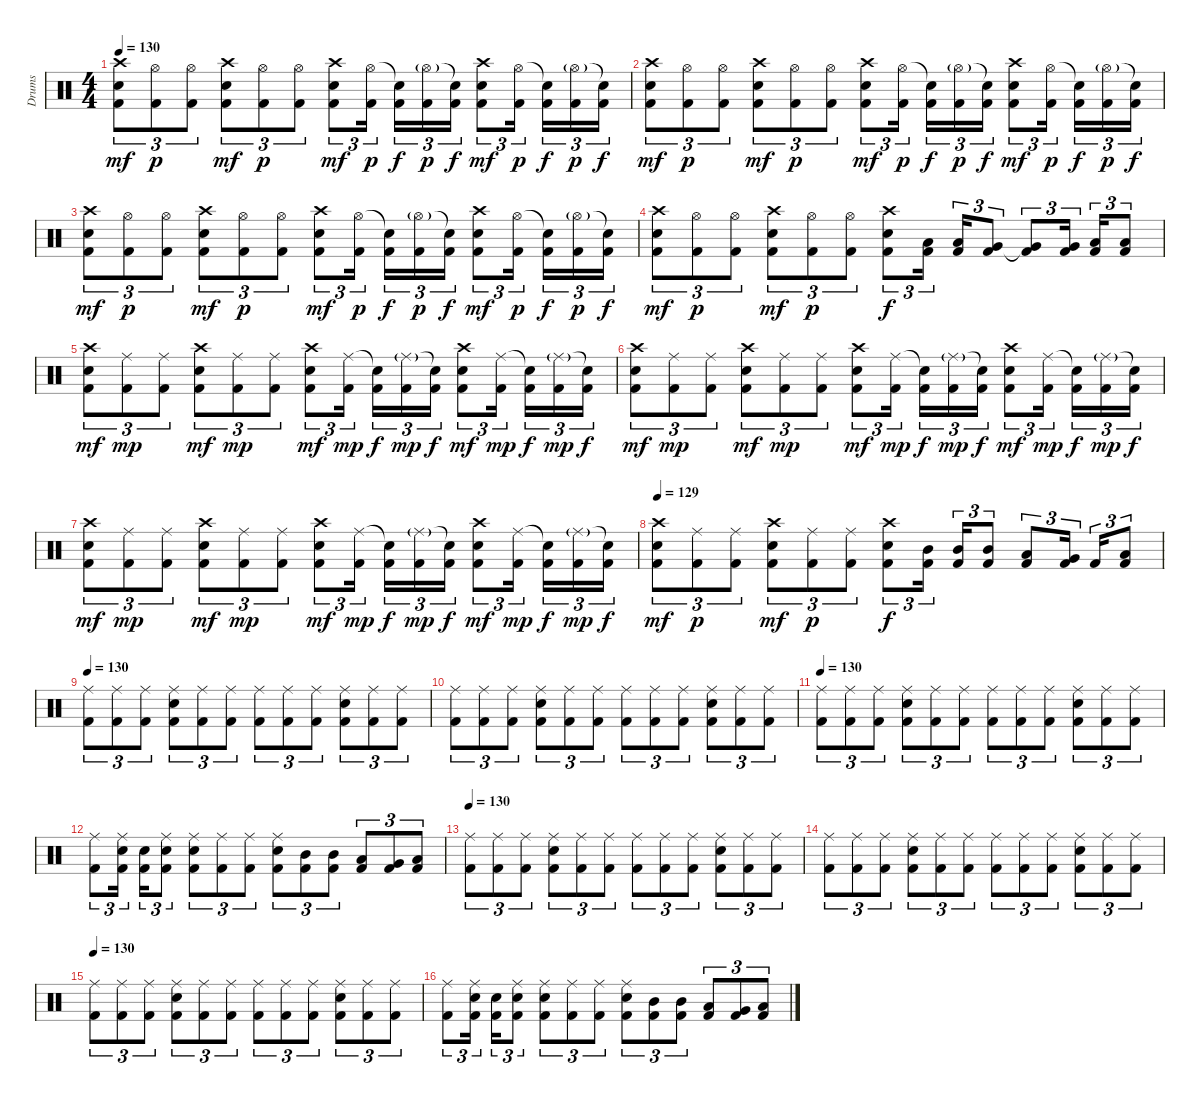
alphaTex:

\track ("Drums" "Drums") {instrument percussion}
\staff {score}
\articulation defaults
\ts (4 4)
\tempo 130
\clef neutral
\ks c
("Crash high (hit)" "Snare (hit) 2" "Kick (hit) 2").8{tu (3 2) dy mf} ("Hi-Hat (open)" "Kick (hit) 2").8{tu (3 2) dy p} ("Hi-Hat (open)" "Kick (hit) 2").8{tu (3 2)} ("Crash high (hit)" "Snare (hit) 2" "Kick (hit) 2").8{tu (3 2) dy mf} ("Hi-Hat (open)" "Kick (hit) 2").8{tu (3 2) dy p} ("Hi-Hat (open)" "Kick (hit) 2").8{tu (3 2)} ("Crash high (hit)" "Snare (hit) 2" "Kick (hit) 2").8{tu (3 2) dy mf} ("Hi-Hat (open)" "Kick (hit) 2").16{tu (3 2) dy p} ("Snare (hit)"{t} "Kick (hit) 2").16{tu (3 2) dy f} ("Hi-Hat (open)"{g} "Kick (hit) 2").16{tu (3 2) dy p} ("Snare (hit)"{t} "Kick (hit) 2").16{tu (3 2) dy f} ("Crash high (hit)" "Snare (hit) 2" "Kick (hit) 2").8{tu (3 2) dy mf} ("Hi-Hat (open)" "Kick (hit) 2").16{tu (3 2) dy p} ("Snare (hit)"{t} "Kick (hit) 2").16{tu (3 2) dy f} ("Hi-Hat (open)"{g} "Kick (hit) 2").16{tu (3 2) dy p} ("Snare (hit)"{t} "Kick (hit) 2").16{tu (3 2) dy f} |
("Crash high (hit)" "Snare (hit) 2" "Kick (hit) 2").8{tu (3 2) dy mf} ("Hi-Hat (open)" "Kick (hit) 2").8{tu (3 2) dy p} ("Hi-Hat (open)" "Kick (hit) 2").8{tu (3 2)} ("Crash high (hit)" "Snare (hit) 2" "Kick (hit) 2").8{tu (3 2) dy mf} ("Hi-Hat (open)" "Kick (hit) 2").8{tu (3 2) dy p} ("Hi-Hat (open)" "Kick (hit) 2").8{tu (3 2)} ("Crash high (hit)" "Snare (hit) 2" "Kick (hit) 2").8{tu (3 2) dy mf} ("Hi-Hat (open)" "Kick (hit) 2").16{tu (3 2) dy p} ("Snare (hit)"{t} "Kick (hit) 2").16{tu (3 2) dy f} ("Hi-Hat (open)"{g} "Kick (hit) 2").16{tu (3 2) dy p} ("Snare (hit)"{t} "Kick (hit) 2").16{tu (3 2) dy f} ("Crash high (hit)" "Snare (hit) 2" "Kick (hit) 2").8{tu (3 2) dy mf} ("Hi-Hat (open)" "Kick (hit) 2").16{tu (3 2) dy p} ("Snare (hit)"{t} "Kick (hit) 2").16{tu (3 2) dy f} ("Hi-Hat (open)"{g} "Kick (hit) 2").16{tu (3 2) dy p} ("Snare (hit)"{t} "Kick (hit) 2").16{tu (3 2) dy f} |
("Crash high (hit)" "Snare (hit) 2" "Kick (hit) 2").8{tu (3 2) dy mf} ("Hi-Hat (open)" "Kick (hit) 2").8{tu (3 2) dy p} ("Hi-Hat (open)" "Kick (hit) 2").8{tu (3 2)} ("Crash high (hit)" "Snare (hit) 2" "Kick (hit) 2").8{tu (3 2) dy mf} ("Hi-Hat (open)" "Kick (hit) 2").8{tu (3 2) dy p} ("Hi-Hat (open)" "Kick (hit) 2").8{tu (3 2)} ("Crash high (hit)" "Snare (hit) 2" "Kick (hit) 2").8{tu (3 2) dy mf} ("Hi-Hat (open)" "Kick (hit) 2").16{tu (3 2) dy p} ("Snare (hit)"{t} "Kick (hit) 2").16{tu (3 2) dy f} ("Hi-Hat (open)"{g} "Kick (hit) 2").16{tu (3 2) dy p} ("Snare (hit)"{t} "Kick (hit) 2").16{tu (3 2) dy f} ("Crash high (hit)" "Snare (hit) 2" "Kick (hit) 2").8{tu (3 2) dy mf} ("Hi-Hat (open)" "Kick (hit) 2").16{tu (3 2) dy p} ("Snare (hit)"{t} "Kick (hit) 2").16{tu (3 2) dy f} ("Hi-Hat (open)"{g} "Kick (hit) 2").16{tu (3 2) dy p} ("Snare (hit)"{t} "Kick (hit) 2").16{tu (3 2) dy f} |
("Crash high (hit)" "Snare (hit) 2" "Kick (hit) 2").8{tu (3 2) dy mf} ("Hi-Hat (open)" "Kick (hit) 2").8{tu (3 2) dy p} ("Hi-Hat (open)" "Kick (hit) 2").8{tu (3 2)} ("Crash high (hit)" "Snare (hit) 2" "Kick (hit) 2").8{tu (3 2) dy mf} ("Hi-Hat (open)" "Kick (hit) 2").8{tu (3 2) dy p} ("Hi-Hat (open)" "Kick (hit) 2").8{tu (3 2)} ("Crash high (hit)" "Snare (hit) 2" "Kick (hit) 2").8{tu (3 2) dy f} ("Low Tom (hit)" "Kick (hit) 2").16{tu (3 2)} ("Low Tom (hit)" "Kick (hit) 2").16{tu (3 2)} ("Very Low Tom (hit)" "Kick (hit) 2").8{tu (3 2)} ("Very Low Tom (hit)"{t} "Kick (hit) 2").8{tu (3 2)} ("Very Low Tom (hit)" "Kick (hit) 2").16{tu (3 2)} ("Low Floor Tom (hit)" "Kick (hit) 2").16{tu (3 2)} ("Low Floor Tom (hit)" "Kick (hit) 2").8{tu (3 2)} |
("Crash high (hit)" "Snare (hit) 2" "Kick (hit) 2").8{tu (3 2) dy mf} ("Ride (middle)" "Kick (hit) 2").8{tu (3 2) dy mp} ("Ride (middle)" "Kick (hit) 2").8{tu (3 2)} ("Crash high (hit)" "Snare (hit) 2" "Kick (hit) 2").8{tu (3 2) dy mf} ("Ride (middle)" "Kick (hit) 2").8{tu (3 2) dy mp} ("Ride (middle)" "Kick (hit) 2").8{tu (3 2)} ("Crash high (hit)" "Snare (hit) 2" "Kick (hit) 2").8{tu (3 2) dy mf} ("Ride (middle)" "Kick (hit) 2").16{tu (3 2) dy mp} ("Snare (hit)"{t} "Kick (hit) 2").16{tu (3 2) dy f} ("Ride (middle)"{g} "Kick (hit) 2").16{tu (3 2) dy mp} ("Snare (hit)"{t} "Kick (hit) 2").16{tu (3 2) dy f} ("Crash high (hit)" "Snare (hit) 2" "Kick (hit) 2").8{tu (3 2) dy mf} ("Ride (middle)" "Kick (hit) 2").16{tu (3 2) dy mp} ("Snare (hit)"{t} "Kick (hit) 2").16{tu (3 2) dy f} ("Ride (middle)"{g} "Kick (hit) 2").16{tu (3 2) dy mp} ("Snare (hit)"{t} "Kick (hit) 2").16{tu (3 2) dy f} |
("Crash high (hit)" "Snare (hit) 2" "Kick (hit) 2").8{tu (3 2) dy mf} ("Ride (middle)" "Kick (hit) 2").8{tu (3 2) dy mp} ("Ride (middle)" "Kick (hit) 2").8{tu (3 2)} ("Crash high (hit)" "Snare (hit) 2" "Kick (hit) 2").8{tu (3 2) dy mf} ("Ride (middle)" "Kick (hit) 2").8{tu (3 2) dy mp} ("Ride (middle)" "Kick (hit) 2").8{tu (3 2)} ("Crash high (hit)" "Snare (hit) 2" "Kick (hit) 2").8{tu (3 2) dy mf} ("Ride (middle)" "Kick (hit) 2").16{tu (3 2) dy mp} ("Snare (hit)"{t} "Kick (hit) 2").16{tu (3 2) dy f} ("Ride (middle)"{g} "Kick (hit) 2").16{tu (3 2) dy mp} ("Snare (hit)"{t} "Kick (hit) 2").16{tu (3 2) dy f} ("Crash high (hit)" "Snare (hit) 2" "Kick (hit) 2").8{tu (3 2) dy mf} ("Ride (middle)" "Kick (hit) 2").16{tu (3 2) dy mp} ("Snare (hit)"{t} "Kick (hit) 2").16{tu (3 2) dy f} ("Ride (middle)"{g} "Kick (hit) 2").16{tu (3 2) dy mp} ("Snare (hit)"{t} "Kick (hit) 2").16{tu (3 2) dy f} |
("Crash high (hit)" "Snare (hit) 2" "Kick (hit) 2").8{tu (3 2) dy mf} ("Ride (middle)" "Kick (hit) 2").8{tu (3 2) dy mp} ("Ride (middle)" "Kick (hit) 2").8{tu (3 2)} ("Crash high (hit)" "Snare (hit) 2" "Kick (hit) 2").8{tu (3 2) dy mf} ("Ride (middle)" "Kick (hit) 2").8{tu (3 2) dy mp} ("Ride (middle)" "Kick (hit) 2").8{tu (3 2)} ("Crash high (hit)" "Snare (hit) 2" "Kick (hit) 2").8{tu (3 2) dy mf} ("Ride (middle)" "Kick (hit) 2").16{tu (3 2) dy mp} ("Snare (hit)"{t} "Kick (hit) 2").16{tu (3 2) dy f} ("Ride (middle)"{g} "Kick (hit) 2").16{tu (3 2) dy mp} ("Snare (hit)"{t} "Kick (hit) 2").16{tu (3 2) dy f} ("Crash high (hit)" "Snare (hit) 2" "Kick (hit) 2").8{tu (3 2) dy mf} ("Ride (middle)" "Kick (hit) 2").16{tu (3 2) dy mp} ("Snare (hit)"{t} "Kick (hit) 2").16{tu (3 2) dy f} ("Ride (middle)"{g} "Kick (hit) 2").16{tu (3 2) dy mp} ("Snare (hit)"{t} "Kick (hit) 2").16{tu (3 2) dy f} |
\tempo 129
("Crash high (hit)" "Snare (hit) 2" "Kick (hit) 2").8{tu (3 2) dy mf} ("Ride (middle)" "Kick (hit) 2").8{tu (3 2) dy p} ("Ride (middle)" "Kick (hit) 2").8{tu (3 2)} ("Crash high (hit)" "Snare (hit) 2" "Kick (hit) 2").8{tu (3 2) dy mf} ("Ride (middle)" "Kick (hit) 2").8{tu (3 2) dy p} ("Ride (middle)" "Kick (hit) 2").8{tu (3 2)} ("Crash high (hit)" "Snare (hit) 2" "Kick (hit) 2").8{tu (3 2) dy f} ("Mid Tom (hit)" "Kick (hit) 2").16{tu (3 2)} ("Mid Tom (hit)" "Kick (hit) 2").16{tu (3 2)} ("Mid Tom (hit)" "Kick (hit) 2").8{tu (3 2)} ("Low Tom (hit)" "Kick (hit) 2").8{tu (3 2)} ("Very Low Tom (hit)" "Kick (hit) 2").16{tu (3 2)} "Kick (hit) 2".16{tu (3 2)} ("Low Floor Tom (hit)" "Kick (hit) 2").8{tu (3 2)} |
\tempo 130
("Ride (middle)" "Kick (hit) 2").8{tu (3 2)} ("Ride (middle)" "Kick (hit) 2").8{tu (3 2)} ("Ride (middle)" "Kick (hit) 2").8{tu (3 2)} ("Ride (middle)" "Snare (hit) 2" "Kick (hit) 2").8{tu (3 2)} ("Ride (middle)" "Kick (hit) 2").8{tu (3 2)} ("Ride (middle)" "Kick (hit) 2").8{tu (3 2)} ("Ride (middle)" "Kick (hit) 2").8{tu (3 2)} ("Ride (middle)" "Kick (hit) 2").8{tu (3 2)} ("Ride (middle)" "Kick (hit) 2").8{tu (3 2)} ("Ride (middle)" "Snare (hit) 2" "Kick (hit) 2").8{tu (3 2)} ("Ride (middle)" "Kick (hit) 2").8{tu (3 2)} ("Ride (middle)" "Kick (hit) 2").8{tu (3 2)} |
("Ride (middle)" "Kick (hit) 2").8{tu (3 2)} ("Ride (middle)" "Kick (hit) 2").8{tu (3 2)} ("Ride (middle)" "Kick (hit) 2").8{tu (3 2)} ("Ride (middle)" "Snare (hit) 2" "Kick (hit) 2").8{tu (3 2)} ("Ride (middle)" "Kick (hit) 2").8{tu (3 2)} ("Ride (middle)" "Kick (hit) 2").8{tu (3 2)} ("Ride (middle)" "Kick (hit) 2").8{tu (3 2)} ("Ride (middle)" "Kick (hit) 2").8{tu (3 2)} ("Ride (middle)" "Kick (hit) 2").8{tu (3 2)} ("Ride (middle)" "Snare (hit) 2" "Kick (hit) 2").8{tu (3 2)} ("Ride (middle)" "Kick (hit) 2").8{tu (3 2)} ("Ride (middle)" "Kick (hit) 2").8{tu (3 2)} |
\tempo 130
("Ride (middle)" "Kick (hit) 2").8{tu (3 2)} ("Ride (middle)" "Kick (hit) 2").8{tu (3 2)} ("Ride (middle)" "Kick (hit) 2").8{tu (3 2)} ("Ride (middle)" "Snare (hit) 2" "Kick (hit) 2").8{tu (3 2)} ("Ride (middle)" "Kick (hit) 2").8{tu (3 2)} ("Ride (middle)" "Kick (hit) 2").8{tu (3 2)} ("Ride (middle)" "Kick (hit) 2").8{tu (3 2)} ("Ride (middle)" "Kick (hit) 2").8{tu (3 2)} ("Ride (middle)" "Kick (hit) 2").8{tu (3 2)} ("Ride (middle)" "Snare (hit) 2" "Kick (hit) 2").8{tu (3 2)} ("Ride (middle)" "Kick (hit) 2").8{tu (3 2)} ("Ride (middle)" "Kick (hit) 2").8{tu (3 2)} |
("Ride (middle)" "Kick (hit) 2").8{tu (3 2)} ("Ride (middle)" "Snare (hit) 2" "Kick (hit) 2").16{tu (3 2)} ("Snare (hit) 2" "Kick (hit) 2").16{tu (3 2)} ("Ride (middle)" "Snare (hit) 2" "Kick (hit) 2").8{tu (3 2)} ("Ride (middle)" "Snare (hit) 2" "Kick (hit) 2").8{tu (3 2)} ("Ride (middle)" "Kick (hit) 2").8{tu (3 2)} ("Ride (middle)" "Kick (hit) 2").8{tu (3 2)} ("Ride (middle)" "Snare (hit) 2" "Kick (hit) 2").8{tu (3 2)} ("Mid Tom (hit)" "Kick (hit) 2").8{tu (3 2)} ("Mid Tom (hit)" "Kick (hit) 2").8{tu (3 2)} ("Low Tom (hit)" "Kick (hit) 2").8{tu (3 2)} ("Very Low Tom (hit)" "Kick (hit) 2").8{tu (3 2)} ("Low Floor Tom (hit)" "Kick (hit) 2").8{tu (3 2)} |
\tempo 130
("Ride (middle)" "Kick (hit) 2").8{tu (3 2)} ("Ride (middle)" "Kick (hit) 2").8{tu (3 2)} ("Ride (middle)" "Kick (hit) 2").8{tu (3 2)} ("Ride (middle)" "Snare (hit) 2" "Kick (hit) 2").8{tu (3 2)} ("Ride (middle)" "Kick (hit) 2").8{tu (3 2)} ("Ride (middle)" "Kick (hit) 2").8{tu (3 2)} ("Ride (middle)" "Kick (hit) 2").8{tu (3 2)} ("Ride (middle)" "Kick (hit) 2").8{tu (3 2)} ("Ride (middle)" "Kick (hit) 2").8{tu (3 2)} ("Ride (middle)" "Snare (hit) 2" "Kick (hit) 2").8{tu (3 2)} ("Ride (middle)" "Kick (hit) 2").8{tu (3 2)} ("Ride (middle)" "Kick (hit) 2").8{tu (3 2)} |
("Ride (middle)" "Kick (hit) 2").8{tu (3 2)} ("Ride (middle)" "Kick (hit) 2").8{tu (3 2)} ("Ride (middle)" "Kick (hit) 2").8{tu (3 2)} ("Ride (middle)" "Snare (hit) 2" "Kick (hit) 2").8{tu (3 2)} ("Ride (middle)" "Kick (hit) 2").8{tu (3 2)} ("Ride (middle)" "Kick (hit) 2").8{tu (3 2)} ("Ride (middle)" "Kick (hit) 2").8{tu (3 2)} ("Ride (middle)" "Kick (hit) 2").8{tu (3 2)} ("Ride (middle)" "Kick (hit) 2").8{tu (3 2)} ("Ride (middle)" "Snare (hit) 2" "Kick (hit) 2").8{tu (3 2)} ("Ride (middle)" "Kick (hit) 2").8{tu (3 2)} ("Ride (middle)" "Kick (hit) 2").8{tu (3 2)} |
\tempo 130
("Ride (middle)" "Kick (hit) 2").8{tu (3 2)} ("Ride (middle)" "Kick (hit) 2").8{tu (3 2)} ("Ride (middle)" "Kick (hit) 2").8{tu (3 2)} ("Ride (middle)" "Snare (hit) 2" "Kick (hit) 2").8{tu (3 2)} ("Ride (middle)" "Kick (hit) 2").8{tu (3 2)} ("Ride (middle)" "Kick (hit) 2").8{tu (3 2)} ("Ride (middle)" "Kick (hit) 2").8{tu (3 2)} ("Ride (middle)" "Kick (hit) 2").8{tu (3 2)} ("Ride (middle)" "Kick (hit) 2").8{tu (3 2)} ("Ride (middle)" "Snare (hit) 2" "Kick (hit) 2").8{tu (3 2)} ("Ride (middle)" "Kick (hit) 2").8{tu (3 2)} ("Ride (middle)" "Kick (hit) 2").8{tu (3 2)} |
("Ride (middle)" "Kick (hit) 2").8{tu (3 2)} ("Ride (middle)" "Snare (hit) 2" "Kick (hit) 2").16{tu (3 2)} ("Snare (hit) 2" "Kick (hit) 2").16{tu (3 2)} ("Ride (middle)" "Snare (hit) 2" "Kick (hit) 2").8{tu (3 2)} ("Ride (middle)" "Snare (hit) 2" "Kick (hit) 2").8{tu (3 2)} ("Ride (middle)" "Kick (hit) 2").8{tu (3 2)} ("Ride (middle)" "Kick (hit) 2").8{tu (3 2)} ("Ride (middle)" "Snare (hit) 2" "Kick (hit) 2").8{tu (3 2)} ("Mid Tom (hit)" "Kick (hit) 2").8{tu (3 2)} ("Mid Tom (hit)" "Kick (hit) 2").8{tu (3 2)} ("Low Tom (hit)" "Kick (hit) 2").8{tu (3 2)} ("Very Low Tom (hit)" "Kick (hit) 2").8{tu (3 2)} ("Low Floor Tom (hit)" "Kick (hit) 2").8{tu (3 2)}
